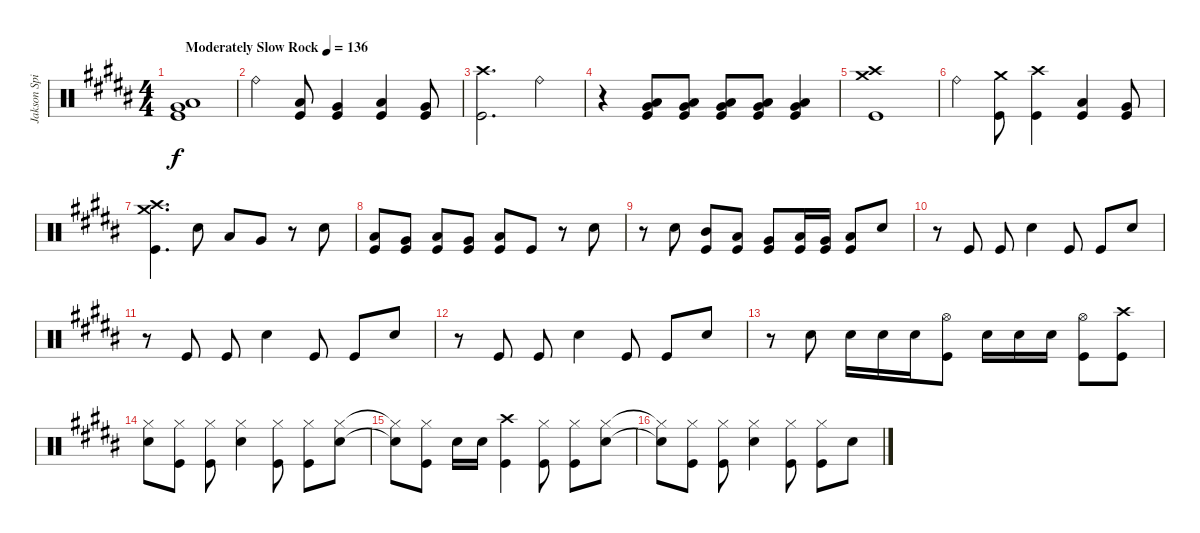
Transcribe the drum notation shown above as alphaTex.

\track ("Jakson Spires Drums" "Jakson Spi") {instrument percussion}
\staff {score}
\articulation defaults
\ts (4 4)
\tempo (136 "Moderately Slow Rock")
\clef neutral
\ks b
("Very Low Tom (hit)" "Low Floor Tom (hit)" "Kick (hit)").1{dy f} |
"Ride (bell)".4 ("Low Tom (hit)" "Kick (hit)").8 ("Very Low Tom (hit)" "Kick (hit)").4 ("Low Tom (hit)" "Kick (hit)").4 ("Very Low Tom (hit)" "Kick (hit)").8 |
("Crash high (hit)" "Kick (hit)").2{d} "Ride (bell)".4 |
r.4 ("Very Low Tom (hit)" "Low Floor Tom (hit)" "Kick (hit)").8 ("Very Low Tom (hit)" "Low Floor Tom (hit)" "Kick (hit)").8 ("Very Low Tom (hit)" "Low Floor Tom (hit)" "Kick (hit)").8 ("Very Low Tom (hit)" "Low Floor Tom (hit)" "Kick (hit)").8 ("Very Low Tom (hit)" "Low Floor Tom (hit)" "Kick (hit)").4 |
("Crash high (hit)" "Crash medium (hit)" "Kick (hit)").1 |
"Ride (bell)".4 ("Crash medium (hit)" "Kick (hit)").8 ("Crash high (hit)" "Kick (hit)").4 ("Low Tom (hit)" "Kick (hit)").4 ("Very Low Tom (hit)" "Kick (hit)").8 |
("Crash high (hit)" "Crash medium (hit)" "Kick (hit)").4{d} "Snare (hit) 2".8 "Low Tom (hit)".8 "Very Low Tom (hit)".8 r.8 "Snare (hit) 2".8 |
("Low Tom (hit)" "Kick (hit)").8 ("Very Low Tom (hit)" "Kick (hit)").8 ("Low Tom (hit)" "Kick (hit)").8 ("Very Low Tom (hit)" "Kick (hit)").8 ("Low Floor Tom (hit)" "Kick (hit)").8 "Kick (hit)".8 r.8 "Snare (hit) 2".8 |
r.8 "Snare (hit) 2".8 ("Mid Tom (hit)" "Kick (hit)").8 ("Low Tom (hit)" "Kick (hit)").8 ("Very Low Tom (hit)" "Kick (hit)").8 ("Low Tom (hit)" "Kick (hit)").16 ("Very Low Tom (hit)" "Kick (hit)").16 ("Low Floor Tom (hit)" "Kick (hit)").8 "Snare (hit) 2".8 |
r.8 "Kick (hit)".8 "Kick (hit)".8 "Snare (hit) 2".4 "Kick (hit)".8 "Kick (hit)".8 "Snare (hit) 2".8 |
r.8 "Kick (hit)".8 "Kick (hit)".8 "Snare (hit) 2".4 "Kick (hit)".8 "Kick (hit)".8 "Snare (hit) 2".8 |
r.8 "Kick (hit)".8 "Kick (hit)".8 "Snare (hit) 2".4 "Kick (hit)".8 "Kick (hit)".8 "Snare (hit) 2".8 |
r.8 "Snare (hit) 2".8 "Snare (hit) 2".16 "Snare (hit) 2".16 "Snare (hit) 2".16 ("Hi-Hat (open)" "Kick (hit)").8 "Snare (hit) 2".16 "Snare (hit) 2".16 "Snare (hit) 2".16 ("Hi-Hat (open)" "Kick (hit)").8 ("Crash high (hit)" "Kick (hit)").8 |
("Hi-Hat (closed)" "Snare (hit) 2").8 ("Hi-Hat (closed)" "Kick (hit)").8 ("Hi-Hat (closed)" "Kick (hit)").8 ("Hi-Hat (closed)" "Snare (hit) 2").4 ("Hi-Hat (closed)" "Kick (hit)").8 ("Hi-Hat (closed)" "Kick (hit)").8 ("Hi-Hat (closed)" "Snare (hit) 2").8 |
("Hi-Hat (closed)"{t} "Snare (hit) 2"{t}).8 ("Hi-Hat (closed)" "Kick (hit)").8 "Snare (hit) 2".16 "Snare (hit) 2".16 ("Crash high (hit)" "Kick (hit)").4 ("Hi-Hat (closed)" "Kick (hit)").8 ("Hi-Hat (closed)" "Kick (hit)").8 ("Hi-Hat (closed)" "Snare (hit) 2").8 |
("Hi-Hat (closed)"{t} "Snare (hit) 2"{t}).8 ("Hi-Hat (closed)" "Kick (hit)").8 ("Hi-Hat (closed)" "Kick (hit)").8 ("Hi-Hat (closed)" "Snare (hit) 2").4 ("Hi-Hat (closed)" "Kick (hit)").8 ("Hi-Hat (closed)" "Kick (hit)").8 "Snare (hit) 2".8
